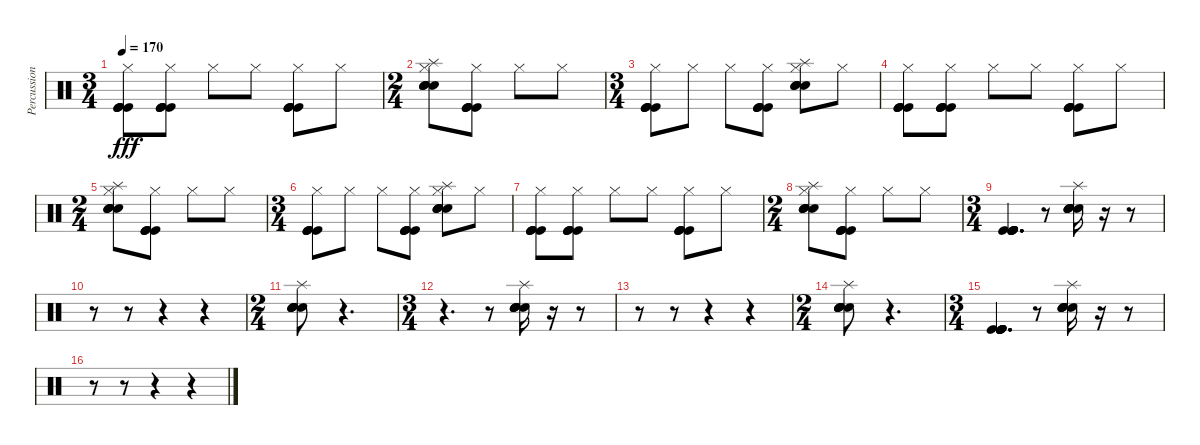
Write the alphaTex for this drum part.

\track ("Percussion" "Percussion") {instrument percussion}
\staff {score}
\articulation defaults
\ts (3 4)
\tempo 170
\clef neutral
\ks c
("Hi-Hat (closed)" "Kick (hit)" "Kick (hit)" "Kick (hit)" "Kick (hit)").8{dy fff} ("Hi-Hat (closed)" "Kick (hit)" "Kick (hit)" "Kick (hit)" "Kick (hit)").8 "Hi-Hat (closed)".8 "Hi-Hat (closed)".8 ("Hi-Hat (closed)" "Kick (hit)" "Kick (hit)" "Kick (hit)" "Kick (hit)").8 "Hi-Hat (closed)".8 |
\ts (2 4)
("Splash (hit)" "Hi-Hat (closed)" "Hand Clap (hit)" "Hand Clap (hit)" "Hand Clap (hit)" "Hand Clap (hit)").8 ("Hi-Hat (closed)" "Kick (hit)" "Kick (hit)" "Kick (hit)" "Kick (hit)").8 "Hi-Hat (closed)".8 "Hi-Hat (closed)".8 |
\ts (3 4)
("Hi-Hat (closed)" "Kick (hit)" "Kick (hit)" "Kick (hit)" "Kick (hit)").8 "Hi-Hat (closed)".8 "Hi-Hat (closed)".8 ("Hi-Hat (closed)" "Kick (hit)" "Kick (hit)" "Kick (hit)" "Kick (hit)").8 ("Splash (hit)" "Hi-Hat (closed)" "Hand Clap (hit)" "Hand Clap (hit)" "Hand Clap (hit)" "Hand Clap (hit)").8 "Hi-Hat (closed)".8 |
("Hi-Hat (closed)" "Kick (hit)" "Kick (hit)" "Kick (hit)" "Kick (hit)").8 ("Hi-Hat (closed)" "Kick (hit)" "Kick (hit)" "Kick (hit)" "Kick (hit)").8 "Hi-Hat (closed)".8 "Hi-Hat (closed)".8 ("Hi-Hat (closed)" "Kick (hit)" "Kick (hit)" "Kick (hit)" "Kick (hit)").8 "Hi-Hat (closed)".8 |
\ts (2 4)
("Splash (hit)" "Hi-Hat (closed)" "Hand Clap (hit)" "Hand Clap (hit)" "Hand Clap (hit)" "Hand Clap (hit)").8 ("Hi-Hat (closed)" "Kick (hit)" "Kick (hit)" "Kick (hit)" "Kick (hit)").8 "Hi-Hat (closed)".8 "Hi-Hat (closed)".8 |
\ts (3 4)
("Hi-Hat (closed)" "Kick (hit)" "Kick (hit)" "Kick (hit)" "Kick (hit)").8 "Hi-Hat (closed)".8 "Hi-Hat (closed)".8 ("Hi-Hat (closed)" "Kick (hit)" "Kick (hit)" "Kick (hit)" "Kick (hit)").8 ("Splash (hit)" "Hi-Hat (closed)" "Hand Clap (hit)" "Hand Clap (hit)" "Hand Clap (hit)" "Hand Clap (hit)").8 "Hi-Hat (closed)".8 |
("Hi-Hat (closed)" "Kick (hit)" "Kick (hit)" "Kick (hit)" "Kick (hit)").8 ("Hi-Hat (closed)" "Kick (hit)" "Kick (hit)" "Kick (hit)" "Kick (hit)").8 "Hi-Hat (closed)".8 "Hi-Hat (closed)".8 ("Hi-Hat (closed)" "Kick (hit)" "Kick (hit)" "Kick (hit)" "Kick (hit)").8 "Hi-Hat (closed)".8 |
\ts (2 4)
("Splash (hit)" "Hi-Hat (closed)" "Hand Clap (hit)" "Hand Clap (hit)" "Hand Clap (hit)" "Hand Clap (hit)").8 ("Hi-Hat (closed)" "Kick (hit)" "Kick (hit)" "Kick (hit)" "Kick (hit)").8 "Hi-Hat (closed)".8 "Hi-Hat (closed)".8 |
\ts (3 4)
("Kick (hit)" "Kick (hit)" "Kick (hit)" "Kick (hit)" "Kick (hit)" "Kick (hit)").4{d} r.8 ("Splash (hit)" "Hand Clap (hit)" "Hand Clap (hit)" "Hand Clap (hit)" "Hand Clap (hit)" "Hand Clap (hit)").16 r.16 r.8 |
r.8 r.8 r.4 r.4 |
\ts (2 4)
("Splash (hit)" "Hand Clap (hit)" "Hand Clap (hit)" "Hand Clap (hit)" "Hand Clap (hit)" "Hand Clap (hit)").8 r.4{d} |
\ts (3 4)
r.4{d} r.8 ("Splash (hit)" "Hand Clap (hit)" "Hand Clap (hit)" "Hand Clap (hit)" "Hand Clap (hit)" "Hand Clap (hit)").16 r.16 r.8 |
r.8 r.8 r.4 r.4 |
\ts (2 4)
("Splash (hit)" "Hand Clap (hit)" "Hand Clap (hit)" "Hand Clap (hit)" "Hand Clap (hit)" "Hand Clap (hit)").8 r.4{d} |
\ts (3 4)
("Kick (hit)" "Kick (hit)" "Kick (hit)" "Kick (hit)" "Kick (hit)" "Kick (hit)").4{d} r.8 ("Splash (hit)" "Hand Clap (hit)" "Hand Clap (hit)" "Hand Clap (hit)" "Hand Clap (hit)" "Hand Clap (hit)").16 r.16 r.8 |
r.8 r.8 r.4 r.4
